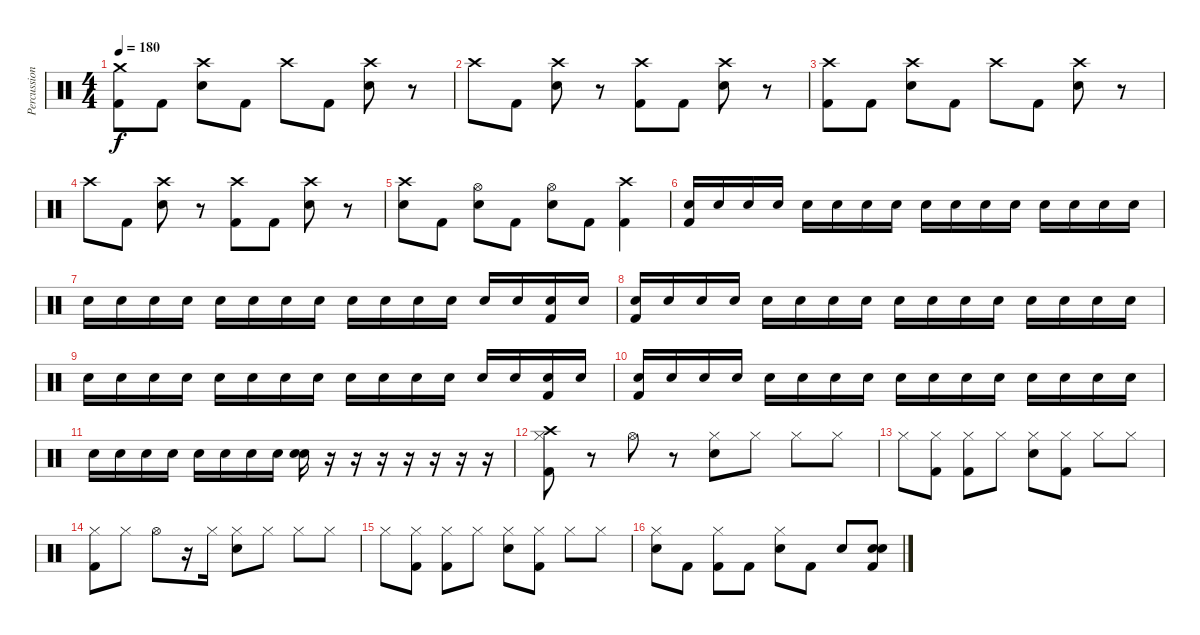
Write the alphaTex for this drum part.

\track ("Percussion" "Percussion") {instrument percussion}
\staff {score}
\articulation defaults
\ts (4 4)
\tempo 180
\clef neutral
\ks c
("Crash medium (hit)" "Kick (hit) 2").8{dy f} "Kick (hit) 2".8 ("Crash high (hit)" "Snare (hit) 2").8 "Kick (hit) 2".8 "Crash high (hit)".8 "Kick (hit) 2".8 ("Crash high (hit)" "Snare (hit) 2").8 r.8 |
"Crash high (hit)".8 "Kick (hit) 2".8 ("Crash high (hit)" "Snare (hit) 2").8 r.8 ("Crash high (hit)" "Kick (hit) 2").8 "Kick (hit) 2".8 ("Crash high (hit)" "Snare (hit) 2").8 r.8 |
("Crash high (hit)" "Kick (hit) 2").8 "Kick (hit) 2".8 ("Crash high (hit)" "Snare (hit) 2").8 "Kick (hit) 2".8 "Crash high (hit)".8 "Kick (hit) 2".8 ("Crash high (hit)" "Snare (hit) 2").8 r.8 |
"Crash high (hit)".8 "Kick (hit) 2".8 ("Crash high (hit)" "Snare (hit) 2").8 r.8 ("Crash high (hit)" "Kick (hit) 2").8 "Kick (hit) 2".8 ("Crash high (hit)" "Snare (hit) 2").8 r.8 |
("Crash high (hit)" "Snare (hit) 2").8 "Kick (hit) 2".8 ("Hi-Hat (open)" "Snare (hit) 2").8 "Kick (hit) 2".8 ("Hi-Hat (open)" "Snare (hit) 2").8 "Kick (hit) 2".8 ("Crash high (hit)" "Kick (hit) 2").4 |
("Snare (hit) 2" "Kick (hit) 2").16 "Snare (hit) 2".16 "Snare (hit) 2".16 "Snare (hit) 2".16 "Snare (hit) 2".16 "Snare (hit) 2".16 "Snare (hit) 2".16 "Snare (hit) 2".16 "Snare (hit) 2".16 "Snare (hit) 2".16 "Snare (hit) 2".16 "Snare (hit) 2".16 "Snare (hit) 2".16 "Snare (hit) 2".16 "Snare (hit) 2".16 "Snare (hit) 2".16 |
"Snare (hit) 2".16 "Snare (hit) 2".16 "Snare (hit) 2".16 "Snare (hit) 2".16 "Snare (hit) 2".16 "Snare (hit) 2".16 "Snare (hit) 2".16 "Snare (hit) 2".16 "Snare (hit) 2".16 "Snare (hit) 2".16 "Snare (hit) 2".16 "Snare (hit) 2".16 "Snare (hit) 2".16 "Snare (hit) 2".16 ("Snare (hit) 2" "Kick (hit) 2").16 "Snare (hit) 2".16 |
("Snare (hit) 2" "Kick (hit) 2").16 "Snare (hit) 2".16 "Snare (hit) 2".16 "Snare (hit) 2".16 "Snare (hit) 2".16 "Snare (hit) 2".16 "Snare (hit) 2".16 "Snare (hit) 2".16 "Snare (hit) 2".16 "Snare (hit) 2".16 "Snare (hit) 2".16 "Snare (hit) 2".16 "Snare (hit) 2".16 "Snare (hit) 2".16 "Snare (hit) 2".16 "Snare (hit) 2".16 |
"Snare (hit) 2".16 "Snare (hit) 2".16 "Snare (hit) 2".16 "Snare (hit) 2".16 "Snare (hit) 2".16 "Snare (hit) 2".16 "Snare (hit) 2".16 "Snare (hit) 2".16 "Snare (hit) 2".16 "Snare (hit) 2".16 "Snare (hit) 2".16 "Snare (hit) 2".16 "Snare (hit) 2".16 "Snare (hit) 2".16 ("Snare (hit) 2" "Kick (hit) 2").16 "Snare (hit) 2".16 |
("Snare (hit) 2" "Kick (hit) 2").16 "Snare (hit) 2".16 "Snare (hit) 2".16 "Snare (hit) 2".16 "Snare (hit) 2".16 "Snare (hit) 2".16 "Snare (hit) 2".16 "Snare (hit) 2".16 "Snare (hit) 2".16 "Snare (hit) 2".16 "Snare (hit) 2".16 "Snare (hit) 2".16 "Snare (hit) 2".16 "Snare (hit) 2".16 "Snare (hit) 2".16 "Snare (hit) 2".16 |
"Snare (hit) 2".16 "Snare (hit) 2".16 "Snare (hit) 2".16 "Snare (hit) 2".16 "Snare (hit) 2".16 "Snare (hit) 2".16 "Snare (hit) 2".16 "Snare (hit) 2".16 ("Snare (hit) 2" "Snare (hit) 2").16 r.16 r.16 r.16 r.16 r.16 r.16 r.16 |
("Crash high (hit)" "Hi-Hat (closed)" "Kick (hit) 2").8 r.8 "Hi-Hat (open)".8 r.8 ("Hi-Hat (closed)" "Snare (hit) 2").8 "Hi-Hat (closed)".8 "Hi-Hat (closed)".8 "Hi-Hat (closed)".8 |
"Hi-Hat (closed)".8 ("Hi-Hat (closed)" "Kick (hit) 2").8 ("Hi-Hat (closed)" "Kick (hit) 2").8 "Hi-Hat (closed)".8 ("Hi-Hat (closed)" "Snare (hit) 2").8 ("Hi-Hat (closed)" "Kick (hit) 2").8 "Hi-Hat (closed)".8 "Hi-Hat (closed)".8 |
("Hi-Hat (closed)" "Kick (hit) 2").8 "Hi-Hat (closed)".8 "Hi-Hat (open)".8 r.16 "Hi-Hat (closed)".16 ("Hi-Hat (closed)" "Snare (hit) 2").8 "Hi-Hat (closed)".8 "Hi-Hat (closed)".8 "Hi-Hat (closed)".8 |
"Hi-Hat (closed)".8 ("Hi-Hat (closed)" "Kick (hit) 2").8 ("Hi-Hat (closed)" "Kick (hit) 2").8 "Hi-Hat (closed)".8 ("Hi-Hat (closed)" "Snare (hit) 2").8 ("Hi-Hat (closed)" "Kick (hit) 2").8 "Hi-Hat (closed)".8 "Hi-Hat (closed)".8 |
("Hi-Hat (closed)" "Snare (hit) 2").8 "Kick (hit) 2".8 ("Hi-Hat (closed)" "Kick (hit) 2").8 "Kick (hit) 2".8 ("Hi-Hat (closed)" "Snare (hit) 2").8 "Kick (hit) 2".8 "Snare (hit) 2".8 ("Snare (hit) 2" "Snare (hit) 2" "Kick (hit) 2").8
